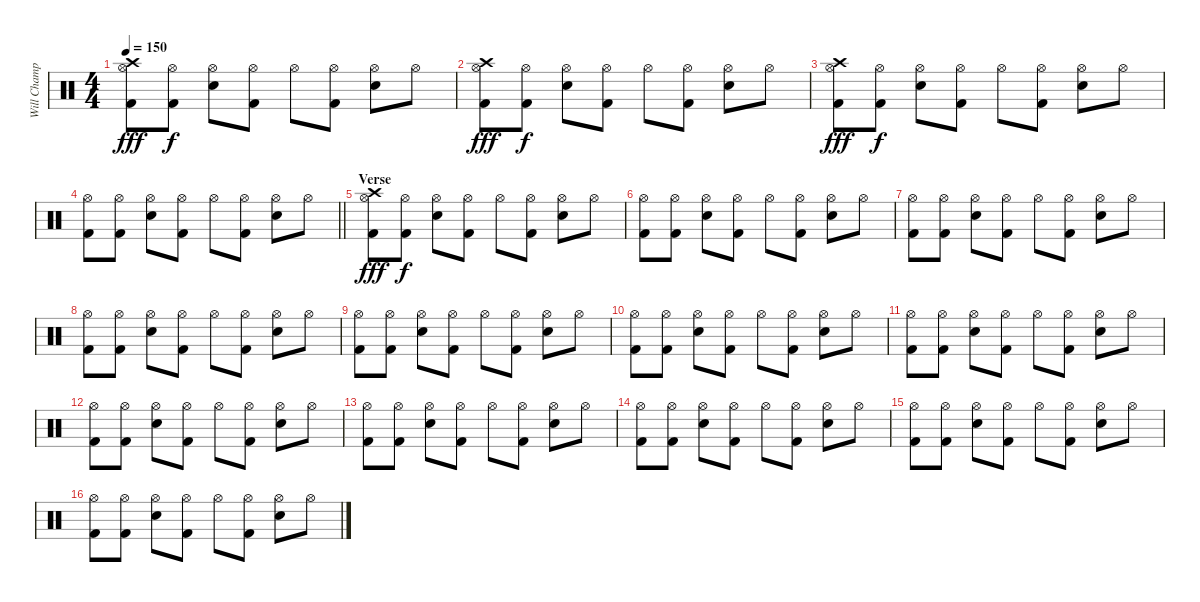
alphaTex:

\track ("Will Champion" "Will Champ") {instrument percussion}
\staff {score}
\articulation defaults
\ts (4 4)
\tempo 150
\clef neutral
\ks c
("Kick (hit) 2" "Hi-Hat (open)" "Crash high (hit)").8{dy fff} ("Kick (hit) 2" "Hi-Hat (open)").8{dy f} ("Electric Snare (hit)" "Hi-Hat (open)").8 ("Kick (hit) 2" "Hi-Hat (open)").8 "Hi-Hat (open)".8 ("Kick (hit) 2" "Hi-Hat (open)").8 ("Electric Snare (hit)" "Hi-Hat (open)").8 "Hi-Hat (open)".8 |
("Kick (hit) 2" "Hi-Hat (open)" "Crash high (hit)").8{dy fff} ("Kick (hit) 2" "Hi-Hat (open)").8{dy f} ("Electric Snare (hit)" "Hi-Hat (open)").8 ("Kick (hit) 2" "Hi-Hat (open)").8 "Hi-Hat (open)".8 ("Kick (hit) 2" "Hi-Hat (open)").8 ("Electric Snare (hit)" "Hi-Hat (open)").8 "Hi-Hat (open)".8 |
("Kick (hit) 2" "Hi-Hat (open)" "Crash high (hit)").8{dy fff} ("Kick (hit) 2" "Hi-Hat (open)").8{dy f} ("Electric Snare (hit)" "Hi-Hat (open)").8 ("Kick (hit) 2" "Hi-Hat (open)").8 "Hi-Hat (open)".8 ("Kick (hit) 2" "Hi-Hat (open)").8 ("Electric Snare (hit)" "Hi-Hat (open)").8 "Hi-Hat (open)".8 |
\barLineRight lightlight
("Kick (hit) 2" "Hi-Hat (open)").8 ("Kick (hit) 2" "Hi-Hat (open)").8 ("Electric Snare (hit)" "Hi-Hat (open)").8 ("Kick (hit) 2" "Hi-Hat (open)").8 "Hi-Hat (open)".8 ("Kick (hit) 2" "Hi-Hat (open)").8 ("Electric Snare (hit)" "Hi-Hat (open)").8 "Hi-Hat (open)".8 |
\section ("" "Verse")
("Kick (hit) 2" "Hi-Hat (open)" "Crash high (hit)").8{dy fff} ("Kick (hit) 2" "Hi-Hat (open)").8{dy f} ("Electric Snare (hit)" "Hi-Hat (open)").8 ("Kick (hit) 2" "Hi-Hat (open)").8 "Hi-Hat (open)".8 ("Kick (hit) 2" "Hi-Hat (open)").8 ("Electric Snare (hit)" "Hi-Hat (open)").8 "Hi-Hat (open)".8 |
("Kick (hit) 2" "Hi-Hat (open)").8 ("Kick (hit) 2" "Hi-Hat (open)").8 ("Electric Snare (hit)" "Hi-Hat (open)").8 ("Kick (hit) 2" "Hi-Hat (open)").8 "Hi-Hat (open)".8 ("Kick (hit) 2" "Hi-Hat (open)").8 ("Electric Snare (hit)" "Hi-Hat (open)").8 "Hi-Hat (open)".8 |
("Kick (hit) 2" "Hi-Hat (open)").8 ("Kick (hit) 2" "Hi-Hat (open)").8 ("Electric Snare (hit)" "Hi-Hat (open)").8 ("Kick (hit) 2" "Hi-Hat (open)").8 "Hi-Hat (open)".8 ("Kick (hit) 2" "Hi-Hat (open)").8 ("Electric Snare (hit)" "Hi-Hat (open)").8 "Hi-Hat (open)".8 |
("Kick (hit) 2" "Hi-Hat (open)").8 ("Kick (hit) 2" "Hi-Hat (open)").8 ("Electric Snare (hit)" "Hi-Hat (open)").8 ("Kick (hit) 2" "Hi-Hat (open)").8 "Hi-Hat (open)".8 ("Kick (hit) 2" "Hi-Hat (open)").8 ("Electric Snare (hit)" "Hi-Hat (open)").8 "Hi-Hat (open)".8 |
("Kick (hit) 2" "Hi-Hat (open)").8 ("Kick (hit) 2" "Hi-Hat (open)").8 ("Electric Snare (hit)" "Hi-Hat (open)").8 ("Kick (hit) 2" "Hi-Hat (open)").8 "Hi-Hat (open)".8 ("Kick (hit) 2" "Hi-Hat (open)").8 ("Electric Snare (hit)" "Hi-Hat (open)").8 "Hi-Hat (open)".8 |
("Kick (hit) 2" "Hi-Hat (open)").8 ("Kick (hit) 2" "Hi-Hat (open)").8 ("Electric Snare (hit)" "Hi-Hat (open)").8 ("Kick (hit) 2" "Hi-Hat (open)").8 "Hi-Hat (open)".8 ("Kick (hit) 2" "Hi-Hat (open)").8 ("Electric Snare (hit)" "Hi-Hat (open)").8 "Hi-Hat (open)".8 |
("Kick (hit) 2" "Hi-Hat (open)").8 ("Kick (hit) 2" "Hi-Hat (open)").8 ("Electric Snare (hit)" "Hi-Hat (open)").8 ("Kick (hit) 2" "Hi-Hat (open)").8 "Hi-Hat (open)".8 ("Kick (hit) 2" "Hi-Hat (open)").8 ("Electric Snare (hit)" "Hi-Hat (open)").8 "Hi-Hat (open)".8 |
("Kick (hit) 2" "Hi-Hat (open)").8 ("Kick (hit) 2" "Hi-Hat (open)").8 ("Electric Snare (hit)" "Hi-Hat (open)").8 ("Kick (hit) 2" "Hi-Hat (open)").8 "Hi-Hat (open)".8 ("Kick (hit) 2" "Hi-Hat (open)").8 ("Electric Snare (hit)" "Hi-Hat (open)").8 "Hi-Hat (open)".8 |
("Kick (hit) 2" "Hi-Hat (open)").8 ("Kick (hit) 2" "Hi-Hat (open)").8 ("Electric Snare (hit)" "Hi-Hat (open)").8 ("Kick (hit) 2" "Hi-Hat (open)").8 "Hi-Hat (open)".8 ("Kick (hit) 2" "Hi-Hat (open)").8 ("Electric Snare (hit)" "Hi-Hat (open)").8 "Hi-Hat (open)".8 |
("Kick (hit) 2" "Hi-Hat (open)").8 ("Kick (hit) 2" "Hi-Hat (open)").8 ("Electric Snare (hit)" "Hi-Hat (open)").8 ("Kick (hit) 2" "Hi-Hat (open)").8 "Hi-Hat (open)".8 ("Kick (hit) 2" "Hi-Hat (open)").8 ("Electric Snare (hit)" "Hi-Hat (open)").8 "Hi-Hat (open)".8 |
("Kick (hit) 2" "Hi-Hat (open)").8 ("Kick (hit) 2" "Hi-Hat (open)").8 ("Electric Snare (hit)" "Hi-Hat (open)").8 ("Kick (hit) 2" "Hi-Hat (open)").8 "Hi-Hat (open)".8 ("Kick (hit) 2" "Hi-Hat (open)").8 ("Electric Snare (hit)" "Hi-Hat (open)").8 "Hi-Hat (open)".8 |
("Kick (hit) 2" "Hi-Hat (open)").8 ("Kick (hit) 2" "Hi-Hat (open)").8 ("Electric Snare (hit)" "Hi-Hat (open)").8 ("Kick (hit) 2" "Hi-Hat (open)").8 "Hi-Hat (open)".8 ("Kick (hit) 2" "Hi-Hat (open)").8 ("Electric Snare (hit)" "Hi-Hat (open)").8 "Hi-Hat (open)".8
